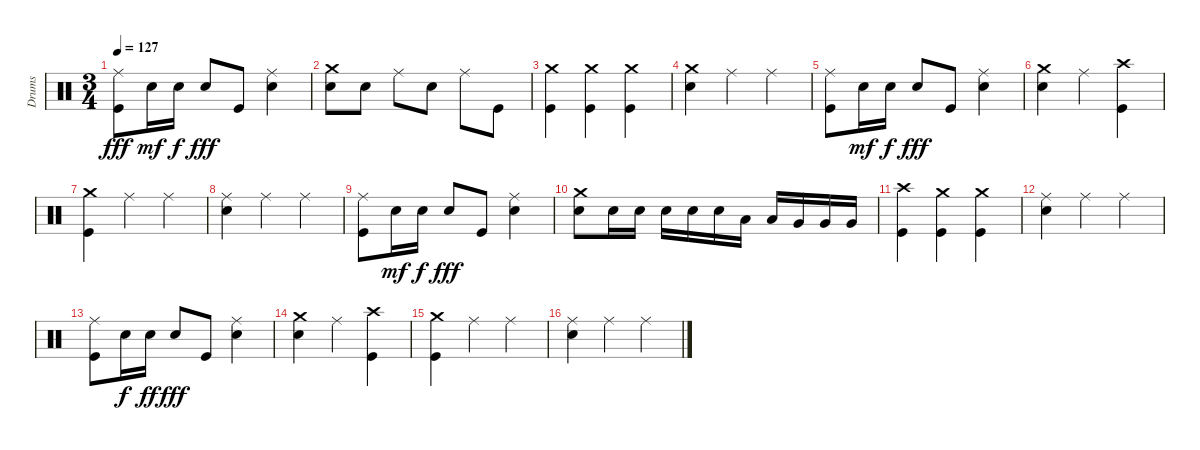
\track ("Drums" "Drums") {instrument percussion}
\staff {score}
\articulation defaults
\ts (3 4)
\tempo 127
\clef neutral
\ks c
("Ride (middle)" "Kick (hit)").8{dy fff} "Snare (hit) 2".16{dy mf} "Snare (hit) 2".16{dy f} "Snare (hit) 2".8{dy fff} "Kick (hit)".8 ("Ride (middle)" "Snare (hit) 2").4 |
("Crash medium (hit)" "Snare (hit) 2").8 "Snare (hit) 2".8 "Ride (middle)".8 "Snare (hit) 2".8 "Ride (middle)".8 "Kick (hit)".8 |
("Crash medium (hit)" "Kick (hit)").4 ("Crash medium (hit)" "Kick (hit)").4 ("Crash medium (hit)" "Kick (hit)").4 |
("Crash medium (hit)" "Snare (hit) 2").4 "Ride (middle)".4 "Ride (middle)".4 |
("Ride (middle)" "Kick (hit)").8 "Snare (hit) 2".16{dy mf} "Snare (hit) 2".16{dy f} "Snare (hit) 2".8{dy fff} "Kick (hit)".8 ("Ride (middle)" "Snare (hit) 2").4 |
("Crash medium (hit)" "Snare (hit) 2").4 "Ride (middle)".4 ("Crash high (hit)" "Kick (hit)").4 |
("Crash medium (hit)" "Kick (hit)").4 "Ride (middle)".4 "Ride (middle)".4 |
("Ride (middle)" "Snare (hit) 2").4 "Ride (middle)".4 "Ride (middle)".4 |
("Ride (middle)" "Kick (hit)").8 "Snare (hit) 2".16{dy mf} "Snare (hit) 2".16{dy f} "Snare (hit) 2".8{dy fff} "Kick (hit)".8 ("Ride (middle)" "Snare (hit) 2").4 |
("Crash medium (hit)" "Snare (hit) 2").8 "Snare (hit) 2".16 "Snare (hit) 2".16 "Snare (hit) 2".16 "Snare (hit) 2".16 "Snare (hit) 2".16 "Low Tom (hit)".16 "Low Tom (hit)".16 "Very Low Tom (hit)".16 "Very Low Tom (hit)".16 "Very Low Tom (hit)".16 |
("Crash high (hit)" "Kick (hit)").4 ("Crash medium (hit)" "Kick (hit)").4 ("Crash medium (hit)" "Kick (hit)").4 |
("Ride (middle)" "Snare (hit) 2").4 "Ride (middle)".4 "Ride (middle)".4 |
("Ride (middle)" "Kick (hit)").8 "Snare (hit) 2".16{dy f} "Snare (hit) 2".16{dy ff} "Snare (hit) 2".8{dy fff} "Kick (hit)".8 ("Ride (middle)" "Snare (hit) 2").4 |
("Crash medium (hit)" "Snare (hit) 2").4 "Ride (middle)".4 ("Crash high (hit)" "Kick (hit)").4 |
("Crash medium (hit)" "Kick (hit)").4 "Ride (middle)".4 "Ride (middle)".4 |
("Ride (middle)" "Snare (hit) 2").4 "Ride (middle)".4 "Ride (middle)".4
